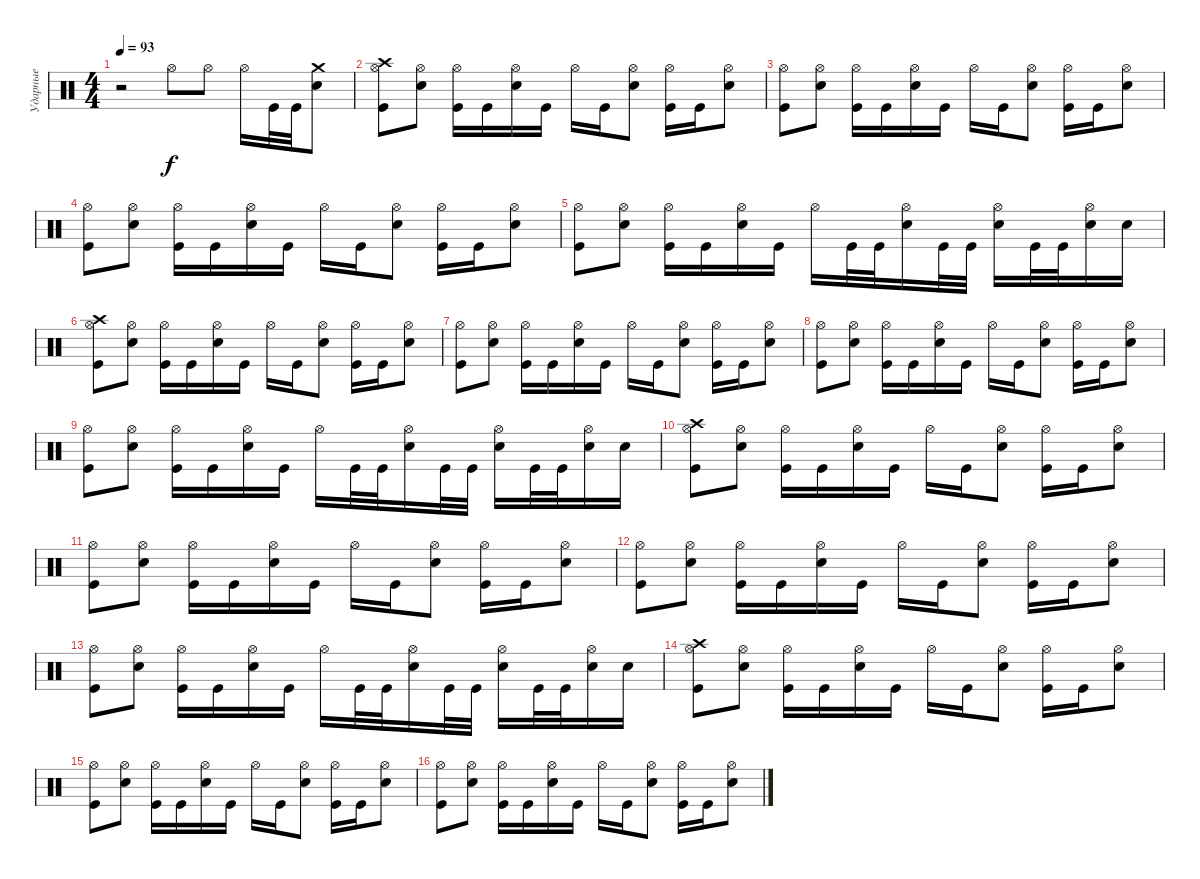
\track ("Ударные" "Ударные") {instrument percussion}
\staff {score}
\articulation defaults
\ts (4 4)
\tempo 93
\clef neutral
\ks c
r.2{dy f} "Hi-Hat (open)".8 "Hi-Hat (open)".8 "Hi-Hat (open)".16 "Kick (hit)".32 "Kick (hit)".32 ("Snare (hit) 2" "Crash medium (hit)").8 |
("Kick (hit)" "Hi-Hat (open)" "Crash high (hit)").8 ("Hi-Hat (open)" "Snare (hit) 2").8 ("Kick (hit)" "Hi-Hat (open)").16 "Kick (hit)".16 ("Snare (hit) 2" "Hi-Hat (open)").16 "Kick (hit)".16 "Hi-Hat (open)".16 "Kick (hit)".16 ("Hi-Hat (open)" "Snare (hit) 2").8 ("Kick (hit)" "Hi-Hat (open)").16 "Kick (hit)".16 ("Snare (hit) 2" "Hi-Hat (open)").8 |
("Kick (hit)" "Hi-Hat (open)").8 ("Hi-Hat (open)" "Snare (hit) 2").8 ("Kick (hit)" "Hi-Hat (open)").16 "Kick (hit)".16 ("Snare (hit) 2" "Hi-Hat (open)").16 "Kick (hit)".16 "Hi-Hat (open)".16 "Kick (hit)".16 ("Hi-Hat (open)" "Snare (hit) 2").8 ("Kick (hit)" "Hi-Hat (open)").16 "Kick (hit)".16 ("Snare (hit) 2" "Hi-Hat (open)").8 |
("Kick (hit)" "Hi-Hat (open)").8 ("Hi-Hat (open)" "Snare (hit) 2").8 ("Kick (hit)" "Hi-Hat (open)").16 "Kick (hit)".16 ("Snare (hit) 2" "Hi-Hat (open)").16 "Kick (hit)".16 "Hi-Hat (open)".16 "Kick (hit)".16 ("Hi-Hat (open)" "Snare (hit) 2").8 ("Kick (hit)" "Hi-Hat (open)").16 "Kick (hit)".16 ("Snare (hit) 2" "Hi-Hat (open)").8 |
("Kick (hit)" "Hi-Hat (open)").8 ("Hi-Hat (open)" "Snare (hit) 2").8 ("Kick (hit)" "Hi-Hat (open)").16 "Kick (hit)".16 ("Snare (hit) 2" "Hi-Hat (open)").16 "Kick (hit)".16 "Hi-Hat (open)".16 "Kick (hit)".32 "Kick (hit)".32 ("Hi-Hat (open)" "Snare (hit) 2").16 "Kick (hit)".32 "Kick (hit)".32 ("Hi-Hat (open)" "Snare (hit) 2").16 "Kick (hit)".32 "Kick (hit)".32 ("Hi-Hat (open)" "Snare (hit) 2").16 "Snare (hit) 2".16 |
("Kick (hit)" "Hi-Hat (open)" "Crash high (hit)").8 ("Hi-Hat (open)" "Snare (hit) 2").8 ("Kick (hit)" "Hi-Hat (open)").16 "Kick (hit)".16 ("Snare (hit) 2" "Hi-Hat (open)").16 "Kick (hit)".16 "Hi-Hat (open)".16 "Kick (hit)".16 ("Hi-Hat (open)" "Snare (hit) 2").8 ("Kick (hit)" "Hi-Hat (open)").16 "Kick (hit)".16 ("Snare (hit) 2" "Hi-Hat (open)").8 |
("Kick (hit)" "Hi-Hat (open)").8 ("Hi-Hat (open)" "Snare (hit) 2").8 ("Kick (hit)" "Hi-Hat (open)").16 "Kick (hit)".16 ("Snare (hit) 2" "Hi-Hat (open)").16 "Kick (hit)".16 "Hi-Hat (open)".16 "Kick (hit)".16 ("Hi-Hat (open)" "Snare (hit) 2").8 ("Kick (hit)" "Hi-Hat (open)").16 "Kick (hit)".16 ("Snare (hit) 2" "Hi-Hat (open)").8 |
("Kick (hit)" "Hi-Hat (open)").8 ("Hi-Hat (open)" "Snare (hit) 2").8 ("Kick (hit)" "Hi-Hat (open)").16 "Kick (hit)".16 ("Snare (hit) 2" "Hi-Hat (open)").16 "Kick (hit)".16 "Hi-Hat (open)".16 "Kick (hit)".16 ("Hi-Hat (open)" "Snare (hit) 2").8 ("Kick (hit)" "Hi-Hat (open)").16 "Kick (hit)".16 ("Snare (hit) 2" "Hi-Hat (open)").8 |
("Kick (hit)" "Hi-Hat (open)").8 ("Hi-Hat (open)" "Snare (hit) 2").8 ("Kick (hit)" "Hi-Hat (open)").16 "Kick (hit)".16 ("Snare (hit) 2" "Hi-Hat (open)").16 "Kick (hit)".16 "Hi-Hat (open)".16 "Kick (hit)".32 "Kick (hit)".32 ("Hi-Hat (open)" "Snare (hit) 2").16 "Kick (hit)".32 "Kick (hit)".32 ("Hi-Hat (open)" "Snare (hit) 2").16 "Kick (hit)".32 "Kick (hit)".32 ("Hi-Hat (open)" "Snare (hit) 2").16 "Snare (hit) 2".16 |
("Kick (hit)" "Hi-Hat (open)" "Crash high (hit)").8 ("Hi-Hat (open)" "Snare (hit) 2").8 ("Kick (hit)" "Hi-Hat (open)").16 "Kick (hit)".16 ("Snare (hit) 2" "Hi-Hat (open)").16 "Kick (hit)".16 "Hi-Hat (open)".16 "Kick (hit)".16 ("Hi-Hat (open)" "Snare (hit) 2").8 ("Kick (hit)" "Hi-Hat (open)").16 "Kick (hit)".16 ("Snare (hit) 2" "Hi-Hat (open)").8 |
("Kick (hit)" "Hi-Hat (open)").8 ("Hi-Hat (open)" "Snare (hit) 2").8 ("Kick (hit)" "Hi-Hat (open)").16 "Kick (hit)".16 ("Snare (hit) 2" "Hi-Hat (open)").16 "Kick (hit)".16 "Hi-Hat (open)".16 "Kick (hit)".16 ("Hi-Hat (open)" "Snare (hit) 2").8 ("Kick (hit)" "Hi-Hat (open)").16 "Kick (hit)".16 ("Snare (hit) 2" "Hi-Hat (open)").8 |
("Kick (hit)" "Hi-Hat (open)").8 ("Hi-Hat (open)" "Snare (hit) 2").8 ("Kick (hit)" "Hi-Hat (open)").16 "Kick (hit)".16 ("Snare (hit) 2" "Hi-Hat (open)").16 "Kick (hit)".16 "Hi-Hat (open)".16 "Kick (hit)".16 ("Hi-Hat (open)" "Snare (hit) 2").8 ("Kick (hit)" "Hi-Hat (open)").16 "Kick (hit)".16 ("Snare (hit) 2" "Hi-Hat (open)").8 |
("Kick (hit)" "Hi-Hat (open)").8 ("Hi-Hat (open)" "Snare (hit) 2").8 ("Kick (hit)" "Hi-Hat (open)").16 "Kick (hit)".16 ("Snare (hit) 2" "Hi-Hat (open)").16 "Kick (hit)".16 "Hi-Hat (open)".16 "Kick (hit)".32 "Kick (hit)".32 ("Hi-Hat (open)" "Snare (hit) 2").16 "Kick (hit)".32 "Kick (hit)".32 ("Hi-Hat (open)" "Snare (hit) 2").16 "Kick (hit)".32 "Kick (hit)".32 ("Hi-Hat (open)" "Snare (hit) 2").16 "Snare (hit) 2".16 |
("Kick (hit)" "Hi-Hat (open)" "Crash high (hit)").8 ("Hi-Hat (open)" "Snare (hit) 2").8 ("Kick (hit)" "Hi-Hat (open)").16 "Kick (hit)".16 ("Snare (hit) 2" "Hi-Hat (open)").16 "Kick (hit)".16 "Hi-Hat (open)".16 "Kick (hit)".16 ("Hi-Hat (open)" "Snare (hit) 2").8 ("Kick (hit)" "Hi-Hat (open)").16 "Kick (hit)".16 ("Snare (hit) 2" "Hi-Hat (open)").8 |
("Kick (hit)" "Hi-Hat (open)").8 ("Hi-Hat (open)" "Snare (hit) 2").8 ("Kick (hit)" "Hi-Hat (open)").16 "Kick (hit)".16 ("Snare (hit) 2" "Hi-Hat (open)").16 "Kick (hit)".16 "Hi-Hat (open)".16 "Kick (hit)".16 ("Hi-Hat (open)" "Snare (hit) 2").8 ("Kick (hit)" "Hi-Hat (open)").16 "Kick (hit)".16 ("Snare (hit) 2" "Hi-Hat (open)").8 |
("Kick (hit)" "Hi-Hat (open)").8 ("Hi-Hat (open)" "Snare (hit) 2").8 ("Kick (hit)" "Hi-Hat (open)").16 "Kick (hit)".16 ("Snare (hit) 2" "Hi-Hat (open)").16 "Kick (hit)".16 "Hi-Hat (open)".16 "Kick (hit)".16 ("Hi-Hat (open)" "Snare (hit) 2").8 ("Kick (hit)" "Hi-Hat (open)").16 "Kick (hit)".16 ("Snare (hit) 2" "Hi-Hat (open)").8
